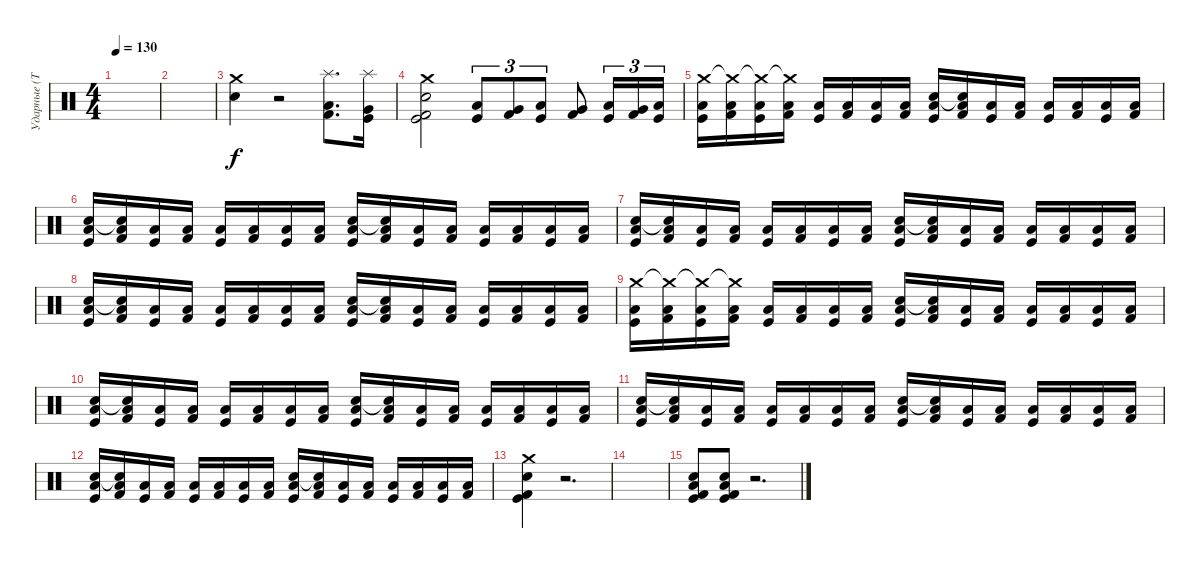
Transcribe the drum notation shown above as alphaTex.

\track ("Ударные (Тьодальв)" "Ударные (Т") {instrument percussion}
\staff {score}
\articulation defaults
\ts (4 4)
\tempo 130
\clef neutral
\ks c
|
|
("Crash medium (hit)" "Snare (hit) 2").4 r.2 ("Splash (hit)" "Low Floor Tom (hit)" "Kick (hit) 2").8{d} ("Splash (hit)" "Very Low Tom (hit)" "Kick (hit)").16 |
("Crash medium (hit)" "Snare (hit) 2" "Kick (hit)" "Kick (hit) 2").2 ("Kick (hit)" "Low Floor Tom (hit)").8{tu (3 2)} ("Kick (hit) 2" "Very Low Tom (hit)").8{tu (3 2)} ("Kick (hit)" "Low Floor Tom (hit)").8{tu (3 2)} ("Kick (hit) 2" "Very Low Tom (hit)").8 ("Kick (hit)" "Low Floor Tom (hit)").16{tu (3 2)} ("Kick (hit) 2" "Very Low Tom (hit)").16{tu (3 2)} ("Kick (hit)" "Low Floor Tom (hit)").16{tu (3 2)} |
("Crash medium (hit)" "Low Floor Tom (hit)" "Kick (hit)").16 ("Crash medium (hit)"{t} "Low Floor Tom (hit)" "Kick (hit) 2").16 ("Crash medium (hit)"{t} "Low Floor Tom (hit)" "Kick (hit)").16 ("Crash medium (hit)"{t} "Low Floor Tom (hit)" "Kick (hit) 2").16 ("Low Floor Tom (hit)" "Kick (hit)").16 ("Low Floor Tom (hit)" "Kick (hit) 2").16 ("Low Floor Tom (hit)" "Kick (hit)").16 ("Low Floor Tom (hit)" "Kick (hit) 2").16 ("Snare (hit) 2" "Low Floor Tom (hit)" "Kick (hit)").16 ("Snare (hit) 2"{t} "Low Floor Tom (hit)" "Kick (hit) 2").16 ("Low Floor Tom (hit)" "Kick (hit)").16 ("Low Floor Tom (hit)" "Kick (hit) 2").16 ("Low Floor Tom (hit)" "Kick (hit)").16 ("Low Floor Tom (hit)" "Kick (hit) 2").16 ("Low Floor Tom (hit)" "Kick (hit)").16 ("Low Floor Tom (hit)" "Kick (hit) 2").16 |
("Snare (hit) 2" "Low Floor Tom (hit)" "Kick (hit)").16 ("Snare (hit) 2"{t} "Low Floor Tom (hit)" "Kick (hit) 2").16 ("Low Floor Tom (hit)" "Kick (hit)").16 ("Low Floor Tom (hit)" "Kick (hit) 2").16 ("Low Floor Tom (hit)" "Kick (hit)").16 ("Low Floor Tom (hit)" "Kick (hit) 2").16 ("Low Floor Tom (hit)" "Kick (hit)").16 ("Low Floor Tom (hit)" "Kick (hit) 2").16 ("Snare (hit) 2" "Low Floor Tom (hit)" "Kick (hit)").16 ("Snare (hit) 2"{t} "Low Floor Tom (hit)" "Kick (hit) 2").16 ("Low Floor Tom (hit)" "Kick (hit)").16 ("Low Floor Tom (hit)" "Kick (hit) 2").16 ("Low Floor Tom (hit)" "Kick (hit)").16 ("Low Floor Tom (hit)" "Kick (hit) 2").16 ("Low Floor Tom (hit)" "Kick (hit)").16 ("Low Floor Tom (hit)" "Kick (hit) 2").16 |
("Snare (hit) 2" "Low Floor Tom (hit)" "Kick (hit)").16 ("Snare (hit) 2"{t} "Low Floor Tom (hit)" "Kick (hit) 2").16 ("Low Floor Tom (hit)" "Kick (hit)").16 ("Low Floor Tom (hit)" "Kick (hit) 2").16 ("Low Floor Tom (hit)" "Kick (hit)").16 ("Low Floor Tom (hit)" "Kick (hit) 2").16 ("Low Floor Tom (hit)" "Kick (hit)").16 ("Low Floor Tom (hit)" "Kick (hit) 2").16 ("Snare (hit) 2" "Low Floor Tom (hit)" "Kick (hit)").16 ("Snare (hit) 2"{t} "Low Floor Tom (hit)" "Kick (hit) 2").16 ("Low Floor Tom (hit)" "Kick (hit)").16 ("Low Floor Tom (hit)" "Kick (hit) 2").16 ("Low Floor Tom (hit)" "Kick (hit)").16 ("Low Floor Tom (hit)" "Kick (hit) 2").16 ("Low Floor Tom (hit)" "Kick (hit)").16 ("Low Floor Tom (hit)" "Kick (hit) 2").16 |
("Snare (hit) 2" "Low Floor Tom (hit)" "Kick (hit)").16 ("Snare (hit) 2"{t} "Low Floor Tom (hit)" "Kick (hit) 2").16 ("Low Floor Tom (hit)" "Kick (hit)").16 ("Low Floor Tom (hit)" "Kick (hit) 2").16 ("Low Floor Tom (hit)" "Kick (hit)").16 ("Low Floor Tom (hit)" "Kick (hit) 2").16 ("Low Floor Tom (hit)" "Kick (hit)").16 ("Low Floor Tom (hit)" "Kick (hit) 2").16 ("Snare (hit) 2" "Low Floor Tom (hit)" "Kick (hit)").16 ("Snare (hit) 2"{t} "Low Floor Tom (hit)" "Kick (hit) 2").16 ("Low Floor Tom (hit)" "Kick (hit)").16 ("Low Floor Tom (hit)" "Kick (hit) 2").16 ("Low Floor Tom (hit)" "Kick (hit)").16 ("Low Floor Tom (hit)" "Kick (hit) 2").16 ("Low Floor Tom (hit)" "Kick (hit)").16 ("Low Floor Tom (hit)" "Kick (hit) 2").16 |
("Crash medium (hit)" "Low Floor Tom (hit)" "Kick (hit)").16 ("Crash medium (hit)"{t} "Low Floor Tom (hit)" "Kick (hit) 2").16 ("Crash medium (hit)"{t} "Low Floor Tom (hit)" "Kick (hit)").16 ("Crash medium (hit)"{t} "Low Floor Tom (hit)" "Kick (hit) 2").16 ("Low Floor Tom (hit)" "Kick (hit)").16 ("Low Floor Tom (hit)" "Kick (hit) 2").16 ("Low Floor Tom (hit)" "Kick (hit)").16 ("Low Floor Tom (hit)" "Kick (hit) 2").16 ("Snare (hit) 2" "Low Floor Tom (hit)" "Kick (hit)").16 ("Snare (hit) 2"{t} "Low Floor Tom (hit)" "Kick (hit) 2").16 ("Low Floor Tom (hit)" "Kick (hit)").16 ("Low Floor Tom (hit)" "Kick (hit) 2").16 ("Low Floor Tom (hit)" "Kick (hit)").16 ("Low Floor Tom (hit)" "Kick (hit) 2").16 ("Low Floor Tom (hit)" "Kick (hit)").16 ("Low Floor Tom (hit)" "Kick (hit) 2").16 |
("Snare (hit) 2" "Low Floor Tom (hit)" "Kick (hit)").16 ("Snare (hit) 2"{t} "Low Floor Tom (hit)" "Kick (hit) 2").16 ("Low Floor Tom (hit)" "Kick (hit)").16 ("Low Floor Tom (hit)" "Kick (hit) 2").16 ("Low Floor Tom (hit)" "Kick (hit)").16 ("Low Floor Tom (hit)" "Kick (hit) 2").16 ("Low Floor Tom (hit)" "Kick (hit)").16 ("Low Floor Tom (hit)" "Kick (hit) 2").16 ("Snare (hit) 2" "Low Floor Tom (hit)" "Kick (hit)").16 ("Snare (hit) 2"{t} "Low Floor Tom (hit)" "Kick (hit) 2").16 ("Low Floor Tom (hit)" "Kick (hit)").16 ("Low Floor Tom (hit)" "Kick (hit) 2").16 ("Low Floor Tom (hit)" "Kick (hit)").16 ("Low Floor Tom (hit)" "Kick (hit) 2").16 ("Low Floor Tom (hit)" "Kick (hit)").16 ("Low Floor Tom (hit)" "Kick (hit) 2").16 |
("Snare (hit) 2" "Low Floor Tom (hit)" "Kick (hit)").16 ("Snare (hit) 2"{t} "Low Floor Tom (hit)" "Kick (hit) 2").16 ("Low Floor Tom (hit)" "Kick (hit)").16 ("Low Floor Tom (hit)" "Kick (hit) 2").16 ("Low Floor Tom (hit)" "Kick (hit)").16 ("Low Floor Tom (hit)" "Kick (hit) 2").16 ("Low Floor Tom (hit)" "Kick (hit)").16 ("Low Floor Tom (hit)" "Kick (hit) 2").16 ("Snare (hit) 2" "Low Floor Tom (hit)" "Kick (hit)").16 ("Snare (hit) 2"{t} "Low Floor Tom (hit)" "Kick (hit) 2").16 ("Low Floor Tom (hit)" "Kick (hit)").16 ("Low Floor Tom (hit)" "Kick (hit) 2").16 ("Low Floor Tom (hit)" "Kick (hit)").16 ("Low Floor Tom (hit)" "Kick (hit) 2").16 ("Low Floor Tom (hit)" "Kick (hit)").16 ("Low Floor Tom (hit)" "Kick (hit) 2").16 |
("Snare (hit) 2" "Low Floor Tom (hit)" "Kick (hit)").16 ("Snare (hit) 2"{t} "Low Floor Tom (hit)" "Kick (hit) 2").16 ("Low Floor Tom (hit)" "Kick (hit)").16 ("Low Floor Tom (hit)" "Kick (hit) 2").16 ("Low Floor Tom (hit)" "Kick (hit)").16 ("Low Floor Tom (hit)" "Kick (hit) 2").16 ("Low Floor Tom (hit)" "Kick (hit)").16 ("Low Floor Tom (hit)" "Kick (hit) 2").16 ("Snare (hit) 2" "Low Floor Tom (hit)" "Kick (hit)").16 ("Snare (hit) 2"{t} "Low Floor Tom (hit)" "Kick (hit) 2").16 ("Low Floor Tom (hit)" "Kick (hit)").16 ("Low Floor Tom (hit)" "Kick (hit) 2").16 ("Low Floor Tom (hit)" "Kick (hit)").16 ("Low Floor Tom (hit)" "Kick (hit) 2").16 ("Low Floor Tom (hit)" "Kick (hit)").16 ("Low Floor Tom (hit)" "Kick (hit) 2").16 |
("Crash medium (hit)" "Snare (hit) 2" "Kick (hit)" "Kick (hit) 2").4 r.2{d} |
|
("Low Floor Tom (hit)" "Snare (hit) 2" "Kick (hit)" "Kick (hit) 2").8 ("Low Floor Tom (hit)" "Snare (hit) 2" "Kick (hit)" "Kick (hit) 2").8 r.2{d}
